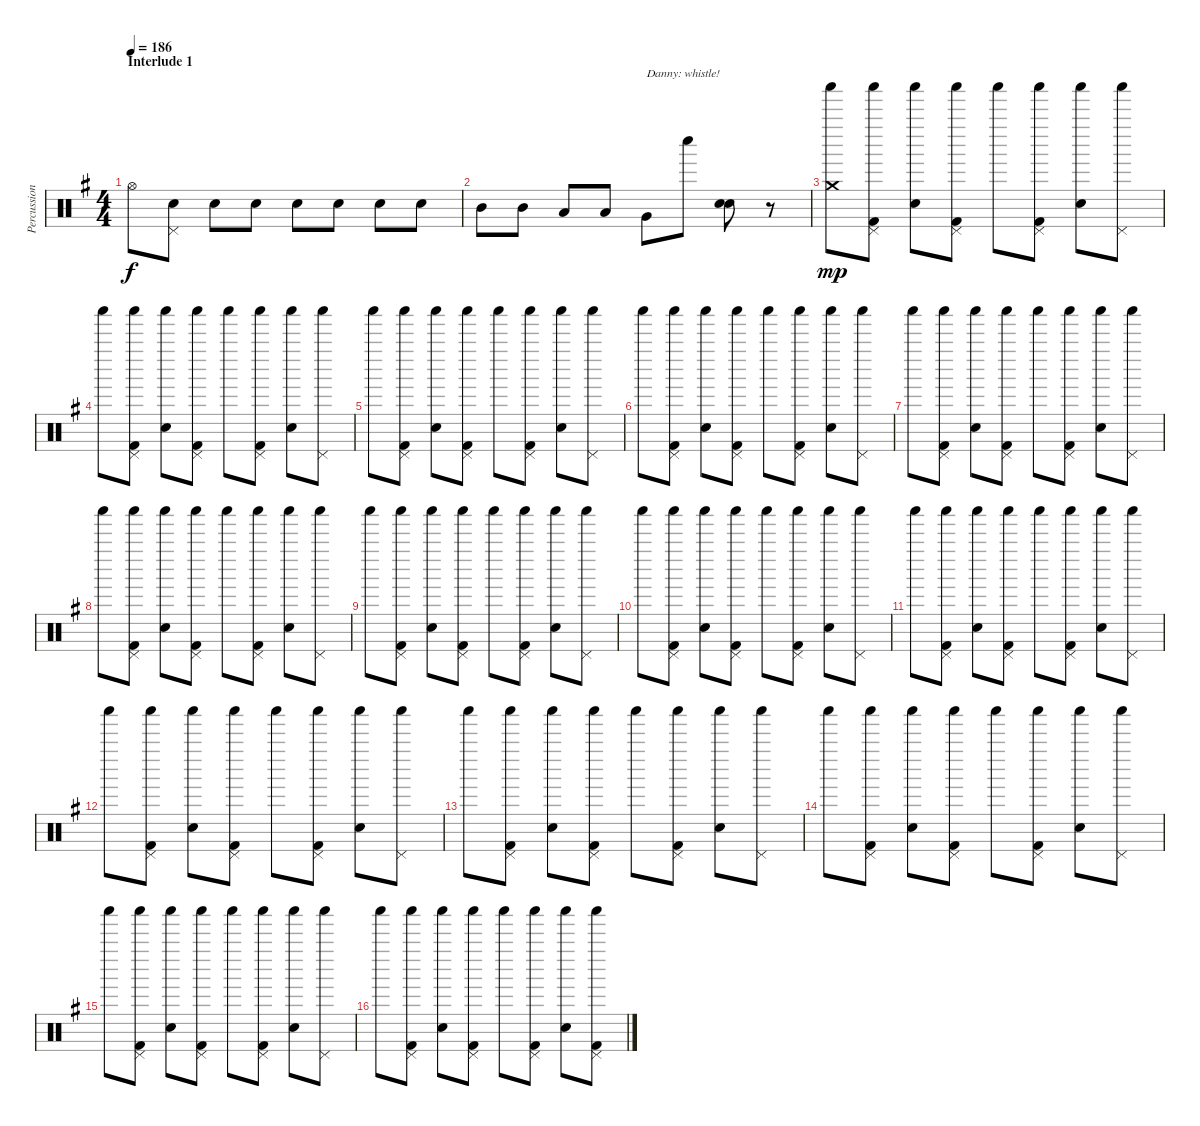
\track ("Percussion" "Percussion") {instrument percussion}
\staff {score}
\articulation defaults
\ts (4 4)
\section ("" "Interlude 1")
\tempo 186
\clef neutral
\ks g "Hi-Hat (open)".8{dy f}
("Pedal Hi-Hat (hit)" "Electric Snare (hit)").8 "Electric Snare (hit)".8 "Electric Snare (hit)".8 "Electric Snare (hit)".8 "Electric Snare (hit)".8 "Electric Snare (hit)".8 "Electric Snare (hit)".8 |
"Mid Tom (hit)".8 "Mid Tom (hit)".8 "Low Tom (hit)".8 "Low Tom (hit)".8 "Very Low Tom (hit)".8{txt "Danny: whistle!"} "Whistle low (hit)".8 ("Electric Snare (hit)" "Electric Snare (hit)").8 r.8 |
("Shaker (hit)" "Crash medium (hit)").8{dy mp} ("Shaker (hit)" "Pedal Hi-Hat (hit)" "Kick (hit) 2").8 ("Shaker (hit)" "Electric Snare (hit)").8 ("Shaker (hit)" "Pedal Hi-Hat (hit)" "Kick (hit) 2").8 "Shaker (hit)".8 ("Shaker (hit)" "Pedal Hi-Hat (hit)" "Kick (hit) 2").8 ("Shaker (hit)" "Electric Snare (hit)").8 ("Shaker (hit)" "Pedal Hi-Hat (hit)").8 |
"Shaker (hit)".8 ("Shaker (hit)" "Pedal Hi-Hat (hit)" "Kick (hit) 2").8 ("Shaker (hit)" "Electric Snare (hit)").8 ("Shaker (hit)" "Pedal Hi-Hat (hit)" "Kick (hit) 2").8 "Shaker (hit)".8 ("Shaker (hit)" "Pedal Hi-Hat (hit)" "Kick (hit) 2").8 ("Shaker (hit)" "Electric Snare (hit)").8 ("Shaker (hit)" "Pedal Hi-Hat (hit)").8 |
"Shaker (hit)".8 ("Shaker (hit)" "Pedal Hi-Hat (hit)" "Kick (hit) 2").8 ("Shaker (hit)" "Electric Snare (hit)").8 ("Shaker (hit)" "Pedal Hi-Hat (hit)" "Kick (hit) 2").8 "Shaker (hit)".8 ("Shaker (hit)" "Pedal Hi-Hat (hit)" "Kick (hit) 2").8 ("Shaker (hit)" "Electric Snare (hit)").8 ("Shaker (hit)" "Pedal Hi-Hat (hit)").8 |
"Shaker (hit)".8 ("Shaker (hit)" "Pedal Hi-Hat (hit)" "Kick (hit) 2").8 ("Shaker (hit)" "Electric Snare (hit)").8 ("Shaker (hit)" "Pedal Hi-Hat (hit)" "Kick (hit) 2").8 "Shaker (hit)".8 ("Shaker (hit)" "Pedal Hi-Hat (hit)" "Kick (hit) 2").8 ("Shaker (hit)" "Electric Snare (hit)").8 ("Shaker (hit)" "Pedal Hi-Hat (hit)").8 |
"Shaker (hit)".8 ("Shaker (hit)" "Pedal Hi-Hat (hit)" "Kick (hit) 2").8 ("Shaker (hit)" "Electric Snare (hit)").8 ("Shaker (hit)" "Pedal Hi-Hat (hit)" "Kick (hit) 2").8 "Shaker (hit)".8 ("Shaker (hit)" "Pedal Hi-Hat (hit)" "Kick (hit) 2").8 ("Shaker (hit)" "Electric Snare (hit)").8 ("Shaker (hit)" "Pedal Hi-Hat (hit)").8 |
"Shaker (hit)".8 ("Shaker (hit)" "Pedal Hi-Hat (hit)" "Kick (hit) 2").8 ("Shaker (hit)" "Electric Snare (hit)").8 ("Shaker (hit)" "Pedal Hi-Hat (hit)" "Kick (hit) 2").8 "Shaker (hit)".8 ("Shaker (hit)" "Pedal Hi-Hat (hit)" "Kick (hit) 2").8 ("Shaker (hit)" "Electric Snare (hit)").8 ("Shaker (hit)" "Pedal Hi-Hat (hit)").8 |
"Shaker (hit)".8 ("Shaker (hit)" "Pedal Hi-Hat (hit)" "Kick (hit) 2").8 ("Shaker (hit)" "Electric Snare (hit)").8 ("Shaker (hit)" "Pedal Hi-Hat (hit)" "Kick (hit) 2").8 "Shaker (hit)".8 ("Shaker (hit)" "Pedal Hi-Hat (hit)" "Kick (hit) 2").8 ("Shaker (hit)" "Electric Snare (hit)").8 ("Shaker (hit)" "Pedal Hi-Hat (hit)").8 |
"Shaker (hit)".8 ("Shaker (hit)" "Pedal Hi-Hat (hit)" "Kick (hit) 2").8 ("Shaker (hit)" "Electric Snare (hit)").8 ("Shaker (hit)" "Pedal Hi-Hat (hit)" "Kick (hit) 2").8 "Shaker (hit)".8 ("Shaker (hit)" "Pedal Hi-Hat (hit)" "Kick (hit) 2").8 ("Shaker (hit)" "Electric Snare (hit)").8 ("Shaker (hit)" "Pedal Hi-Hat (hit)").8 |
"Shaker (hit)".8 ("Shaker (hit)" "Pedal Hi-Hat (hit)" "Kick (hit) 2").8 ("Shaker (hit)" "Electric Snare (hit)").8 ("Shaker (hit)" "Pedal Hi-Hat (hit)" "Kick (hit) 2").8 "Shaker (hit)".8 ("Shaker (hit)" "Pedal Hi-Hat (hit)" "Kick (hit) 2").8 ("Shaker (hit)" "Electric Snare (hit)").8 ("Shaker (hit)" "Pedal Hi-Hat (hit)").8 |
"Shaker (hit)".8 ("Shaker (hit)" "Pedal Hi-Hat (hit)" "Kick (hit) 2").8 ("Shaker (hit)" "Electric Snare (hit)").8 ("Shaker (hit)" "Pedal Hi-Hat (hit)" "Kick (hit) 2").8 "Shaker (hit)".8 ("Shaker (hit)" "Pedal Hi-Hat (hit)" "Kick (hit) 2").8 ("Shaker (hit)" "Electric Snare (hit)").8 ("Shaker (hit)" "Pedal Hi-Hat (hit)").8 |
"Shaker (hit)".8 ("Shaker (hit)" "Pedal Hi-Hat (hit)" "Kick (hit) 2").8 ("Shaker (hit)" "Electric Snare (hit)").8 ("Shaker (hit)" "Pedal Hi-Hat (hit)" "Kick (hit) 2").8 "Shaker (hit)".8 ("Shaker (hit)" "Pedal Hi-Hat (hit)" "Kick (hit) 2").8 ("Shaker (hit)" "Electric Snare (hit)").8 ("Shaker (hit)" "Pedal Hi-Hat (hit)").8 |
"Shaker (hit)".8 ("Shaker (hit)" "Pedal Hi-Hat (hit)" "Kick (hit) 2").8 ("Shaker (hit)" "Electric Snare (hit)").8 ("Shaker (hit)" "Pedal Hi-Hat (hit)" "Kick (hit) 2").8 "Shaker (hit)".8 ("Shaker (hit)" "Pedal Hi-Hat (hit)" "Kick (hit) 2").8 ("Shaker (hit)" "Electric Snare (hit)").8 ("Shaker (hit)" "Pedal Hi-Hat (hit)").8 |
"Shaker (hit)".8 ("Shaker (hit)" "Pedal Hi-Hat (hit)" "Kick (hit) 2").8 ("Shaker (hit)" "Electric Snare (hit)").8 ("Shaker (hit)" "Pedal Hi-Hat (hit)" "Kick (hit) 2").8 "Shaker (hit)".8 ("Shaker (hit)" "Pedal Hi-Hat (hit)" "Kick (hit) 2").8 ("Shaker (hit)" "Electric Snare (hit)").8 ("Shaker (hit)" "Pedal Hi-Hat (hit)").8 |
"Shaker (hit)".8 ("Shaker (hit)" "Pedal Hi-Hat (hit)" "Kick (hit) 2").8 ("Shaker (hit)" "Electric Snare (hit)").8 ("Shaker (hit)" "Pedal Hi-Hat (hit)" "Kick (hit) 2").8 "Shaker (hit)".8 ("Shaker (hit)" "Pedal Hi-Hat (hit)" "Kick (hit) 2").8 ("Shaker (hit)" "Electric Snare (hit)").8 ("Shaker (hit)" "Pedal Hi-Hat (hit)" "Kick (hit) 2").8
